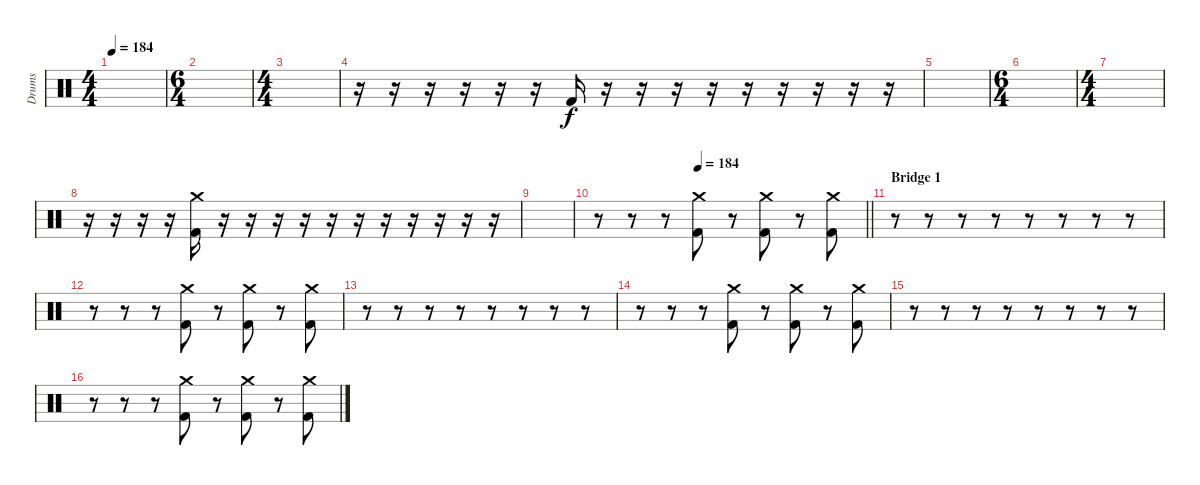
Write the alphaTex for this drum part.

\track ("Drums" "Drums") {instrument percussion}
\staff {score}
\articulation defaults
\ts (4 4)
\tempo 184
\clef neutral
\ks c
|
\ts (6 4)
|
\ts (4 4)
|
r.16 r.16 r.16 r.16 r.16 r.16 "Kick (hit) 2".16 r.16 r.16 r.16 r.16 r.16 r.16 r.16 r.16 r.16 |
|
\ts (6 4)
|
\ts (4 4)
|
r.16 r.16 r.16 r.16 ("Crash medium (hit)" "Kick (hit) 2").16 r.16 r.16 r.16 r.16 r.16 r.16 r.16 r.16 r.16 r.16 r.16 |
|
\tempo (184 0.375)
\barLineRight lightlight
r.8 r.8 r.8 ("Crash medium (hit)" "Kick (hit) 2").8 r.8 ("Crash medium (hit)" "Kick (hit) 2").8 r.8 ("Crash medium (hit)" "Kick (hit) 2").8 |
\section ("" "Bridge 1")
r.8 r.8 r.8 r.8 r.8 r.8 r.8 r.8 |
r.8 r.8 r.8 ("Crash medium (hit)" "Kick (hit) 2").8 r.8 ("Crash medium (hit)" "Kick (hit) 2").8 r.8 ("Crash medium (hit)" "Kick (hit) 2").8 |
r.8 r.8 r.8 r.8 r.8 r.8 r.8 r.8 |
r.8 r.8 r.8 ("Crash medium (hit)" "Kick (hit) 2").8 r.8 ("Crash medium (hit)" "Kick (hit) 2").8 r.8 ("Crash medium (hit)" "Kick (hit) 2").8 |
r.8 r.8 r.8 r.8 r.8 r.8 r.8 r.8 |
r.8 r.8 r.8 ("Crash medium (hit)" "Kick (hit) 2").8 r.8 ("Crash medium (hit)" "Kick (hit) 2").8 r.8 ("Crash medium (hit)" "Kick (hit) 2").8
